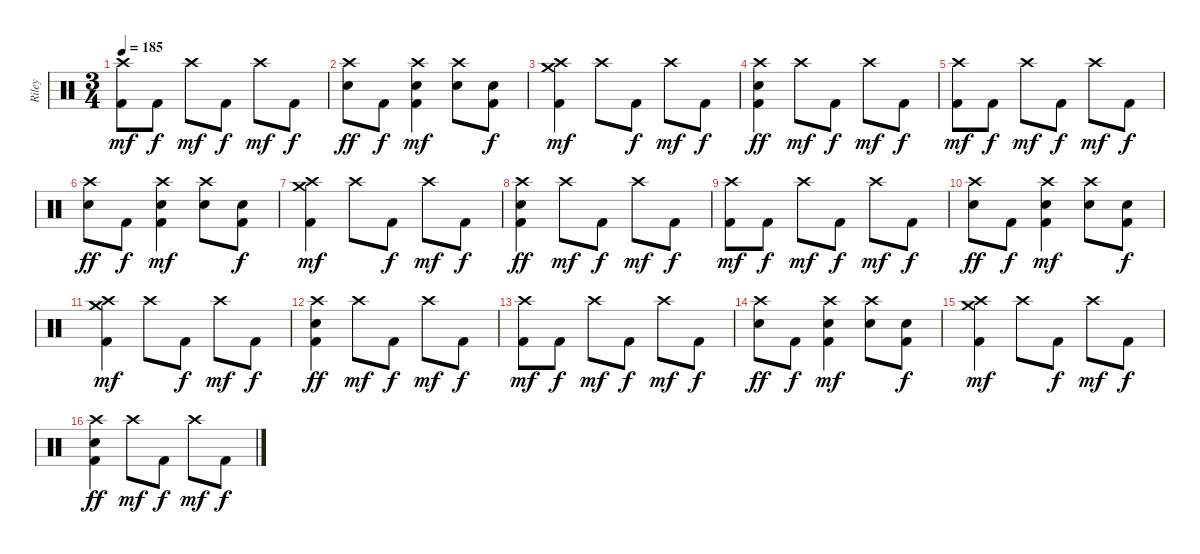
\track ("Riley" "Riley") {instrument percussion}
\staff {score}
\articulation defaults
\ts (3 4)
\tempo 185
\clef neutral
\ks c
("Crash high (hit)" "Kick (hit) 2").8{dy mf} "Kick (hit) 2".8{dy f} "Crash high (hit)".8{dy mf} "Kick (hit) 2".8{dy f} "Crash high (hit)".8{dy mf} "Kick (hit) 2".8{dy f} |
("Crash high (hit)" "Electric Snare (hit)").8{dy ff} "Kick (hit) 2".8{dy f} ("Crash high (hit)" "Electric Snare (hit)" "Kick (hit) 2").4{dy mf} ("Crash high (hit)" "Electric Snare (hit)").8 ("Electric Snare (hit)" "Kick (hit) 2").8{dy f} |
("Crash high (hit)" "Crash medium (hit)" "Kick (hit) 2").4{dy mf} "Crash high (hit)".8 "Kick (hit) 2".8{dy f} "Crash high (hit)".8{dy mf} "Kick (hit) 2".8{dy f} |
("Crash high (hit)" "Electric Snare (hit)" "Kick (hit) 2").4{dy ff} "Crash high (hit)".8{dy mf} "Kick (hit) 2".8{dy f} "Crash high (hit)".8{dy mf} "Kick (hit) 2".8{dy f} |
("Crash high (hit)" "Kick (hit) 2").8{dy mf} "Kick (hit) 2".8{dy f} "Crash high (hit)".8{dy mf} "Kick (hit) 2".8{dy f} "Crash high (hit)".8{dy mf} "Kick (hit) 2".8{dy f} |
("Crash high (hit)" "Electric Snare (hit)").8{dy ff} "Kick (hit) 2".8{dy f} ("Crash high (hit)" "Electric Snare (hit)" "Kick (hit) 2").4{dy mf} ("Crash high (hit)" "Electric Snare (hit)").8 ("Electric Snare (hit)" "Kick (hit) 2").8{dy f} |
("Crash high (hit)" "Crash medium (hit)" "Kick (hit) 2").4{dy mf} "Crash high (hit)".8 "Kick (hit) 2".8{dy f} "Crash high (hit)".8{dy mf} "Kick (hit) 2".8{dy f} |
("Crash high (hit)" "Electric Snare (hit)" "Kick (hit) 2").4{dy ff} "Crash high (hit)".8{dy mf} "Kick (hit) 2".8{dy f} "Crash high (hit)".8{dy mf} "Kick (hit) 2".8{dy f} |
("Crash high (hit)" "Kick (hit) 2").8{dy mf} "Kick (hit) 2".8{dy f} "Crash high (hit)".8{dy mf} "Kick (hit) 2".8{dy f} "Crash high (hit)".8{dy mf} "Kick (hit) 2".8{dy f} |
("Crash high (hit)" "Electric Snare (hit)").8{dy ff} "Kick (hit) 2".8{dy f} ("Crash high (hit)" "Electric Snare (hit)" "Kick (hit) 2").4{dy mf} ("Crash high (hit)" "Electric Snare (hit)").8 ("Electric Snare (hit)" "Kick (hit) 2").8{dy f} |
("Crash high (hit)" "Crash medium (hit)" "Kick (hit) 2").4{dy mf} "Crash high (hit)".8 "Kick (hit) 2".8{dy f} "Crash high (hit)".8{dy mf} "Kick (hit) 2".8{dy f} |
("Crash high (hit)" "Electric Snare (hit)" "Kick (hit) 2").4{dy ff} "Crash high (hit)".8{dy mf} "Kick (hit) 2".8{dy f} "Crash high (hit)".8{dy mf} "Kick (hit) 2".8{dy f} |
("Crash high (hit)" "Kick (hit) 2").8{dy mf} "Kick (hit) 2".8{dy f} "Crash high (hit)".8{dy mf} "Kick (hit) 2".8{dy f} "Crash high (hit)".8{dy mf} "Kick (hit) 2".8{dy f} |
("Crash high (hit)" "Electric Snare (hit)").8{dy ff} "Kick (hit) 2".8{dy f} ("Crash high (hit)" "Electric Snare (hit)" "Kick (hit) 2").4{dy mf} ("Crash high (hit)" "Electric Snare (hit)").8 ("Electric Snare (hit)" "Kick (hit) 2").8{dy f} |
("Crash high (hit)" "Crash medium (hit)" "Kick (hit) 2").4{dy mf} "Crash high (hit)".8 "Kick (hit) 2".8{dy f} "Crash high (hit)".8{dy mf} "Kick (hit) 2".8{dy f} |
("Crash high (hit)" "Electric Snare (hit)" "Kick (hit) 2").4{dy ff} "Crash high (hit)".8{dy mf} "Kick (hit) 2".8{dy f} "Crash high (hit)".8{dy mf} "Kick (hit) 2".8{dy f}
